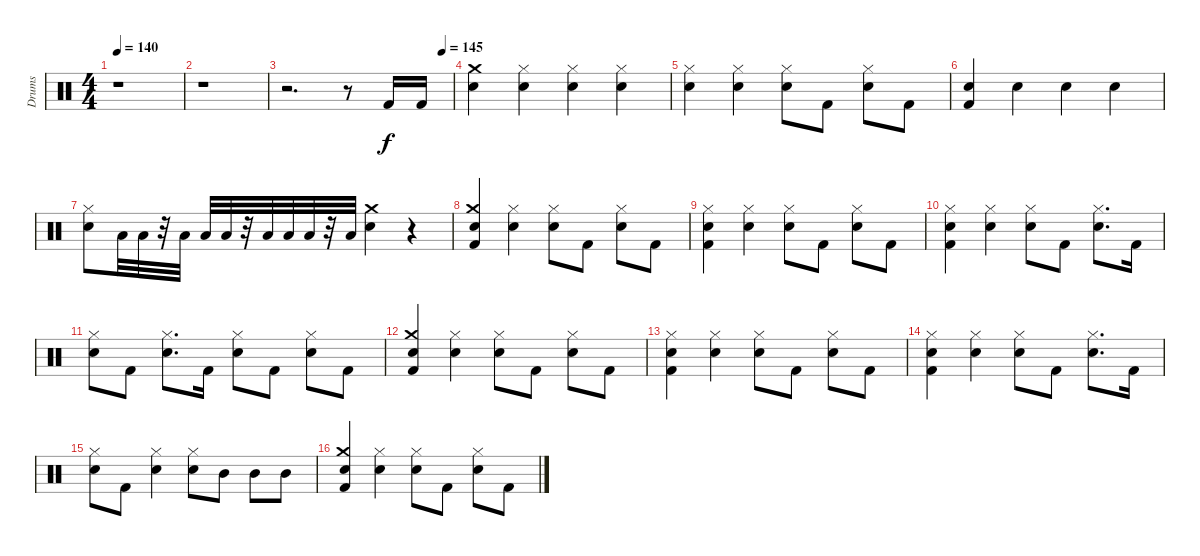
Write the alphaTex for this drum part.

\track ("Drums" "Drums") {instrument percussion}
\staff {score}
\articulation defaults
\ts (4 4)
\tempo 140
\clef neutral
\ks c
r.1{dy f} |
r.1 |
\tempo (145 0.9375)
r.2{d} r.8 "Kick (hit) 2".16 "Kick (hit) 2".16 |
("Crash medium (hit)" "Snare (hit) 2").4 ("Hi-Hat (closed)" "Snare (hit) 2").4 ("Hi-Hat (closed)" "Snare (hit) 2").4 ("Hi-Hat (closed)" "Snare (hit) 2").4 |
("Hi-Hat (closed)" "Snare (hit) 2").4 ("Hi-Hat (closed)" "Snare (hit) 2").4 ("Hi-Hat (closed)" "Snare (hit) 2").8 "Kick (hit) 2".8 ("Hi-Hat (closed)" "Snare (hit) 2").8 "Kick (hit) 2".8 |
("Kick (hit) 2" "Snare (hit) 2").4 "Snare (hit) 2".4 "Snare (hit) 2".4 "Snare (hit) 2".4 |
("Hi-Hat (closed)" "Snare (hit) 2").8 "Low Tom (hit)".32 "Low Tom (hit)".32 r.32 "Low Tom (hit)".32 "Low Tom (hit)".32 "Low Tom (hit)".32 r.32 "Low Tom (hit)".32 "Low Tom (hit)".32 "Low Tom (hit)".32 r.32 "Low Tom (hit)".32 ("Crash medium (hit)" "Snare (hit) 2").4 r.4 |
("Crash medium (hit)" "Snare (hit) 2" "Kick (hit) 2").4 ("Hi-Hat (closed)" "Snare (hit) 2").4 ("Hi-Hat (closed)" "Snare (hit) 2").8 "Kick (hit) 2".8 ("Hi-Hat (closed)" "Snare (hit) 2").8 "Kick (hit) 2".8 |
("Hi-Hat (closed)" "Snare (hit) 2" "Kick (hit) 2").4 ("Hi-Hat (closed)" "Snare (hit) 2").4 ("Hi-Hat (closed)" "Snare (hit) 2").8 "Kick (hit) 2".8 ("Hi-Hat (closed)" "Snare (hit) 2").8 "Kick (hit) 2".8 |
("Hi-Hat (closed)" "Snare (hit) 2" "Kick (hit) 2").4 ("Hi-Hat (closed)" "Snare (hit) 2").4 ("Hi-Hat (closed)" "Snare (hit) 2").8 "Kick (hit) 2".8 ("Hi-Hat (closed)" "Snare (hit) 2").8{d} "Kick (hit) 2".16 |
("Snare (hit) 2" "Hi-Hat (closed)").8 "Kick (hit) 2".8 ("Snare (hit) 2" "Hi-Hat (closed)").8{d} "Kick (hit) 2".16 ("Snare (hit) 2" "Hi-Hat (closed)").8 "Kick (hit) 2".8 ("Snare (hit) 2" "Hi-Hat (closed)").8 "Kick (hit) 2".8 |
("Crash medium (hit)" "Snare (hit) 2" "Kick (hit) 2").4 ("Hi-Hat (closed)" "Snare (hit) 2").4 ("Hi-Hat (closed)" "Snare (hit) 2").8 "Kick (hit) 2".8 ("Hi-Hat (closed)" "Snare (hit) 2").8 "Kick (hit) 2".8 |
("Hi-Hat (closed)" "Snare (hit) 2" "Kick (hit) 2").4 ("Hi-Hat (closed)" "Snare (hit) 2").4 ("Hi-Hat (closed)" "Snare (hit) 2").8 "Kick (hit) 2".8 ("Hi-Hat (closed)" "Snare (hit) 2").8 "Kick (hit) 2".8 |
("Hi-Hat (closed)" "Snare (hit) 2" "Kick (hit) 2").4 ("Hi-Hat (closed)" "Snare (hit) 2").4 ("Hi-Hat (closed)" "Snare (hit) 2").8 "Kick (hit) 2".8 ("Hi-Hat (closed)" "Snare (hit) 2").8{d} "Kick (hit) 2".16 |
("Hi-Hat (closed)" "Snare (hit) 2").8 "Kick (hit) 2".8 ("Hi-Hat (closed)" "Snare (hit) 2").4 ("Hi-Hat (closed)" "Snare (hit) 2").8 "Mid Tom (hit)".8 "Mid Tom (hit)".8 "Mid Tom (hit)".8 |
("Kick (hit) 2" "Crash medium (hit)" "Snare (hit) 2").4 ("Hi-Hat (closed)" "Snare (hit) 2").4 ("Hi-Hat (closed)" "Snare (hit) 2").8 "Kick (hit) 2".8 ("Hi-Hat (closed)" "Snare (hit) 2").8 "Kick (hit) 2".8
